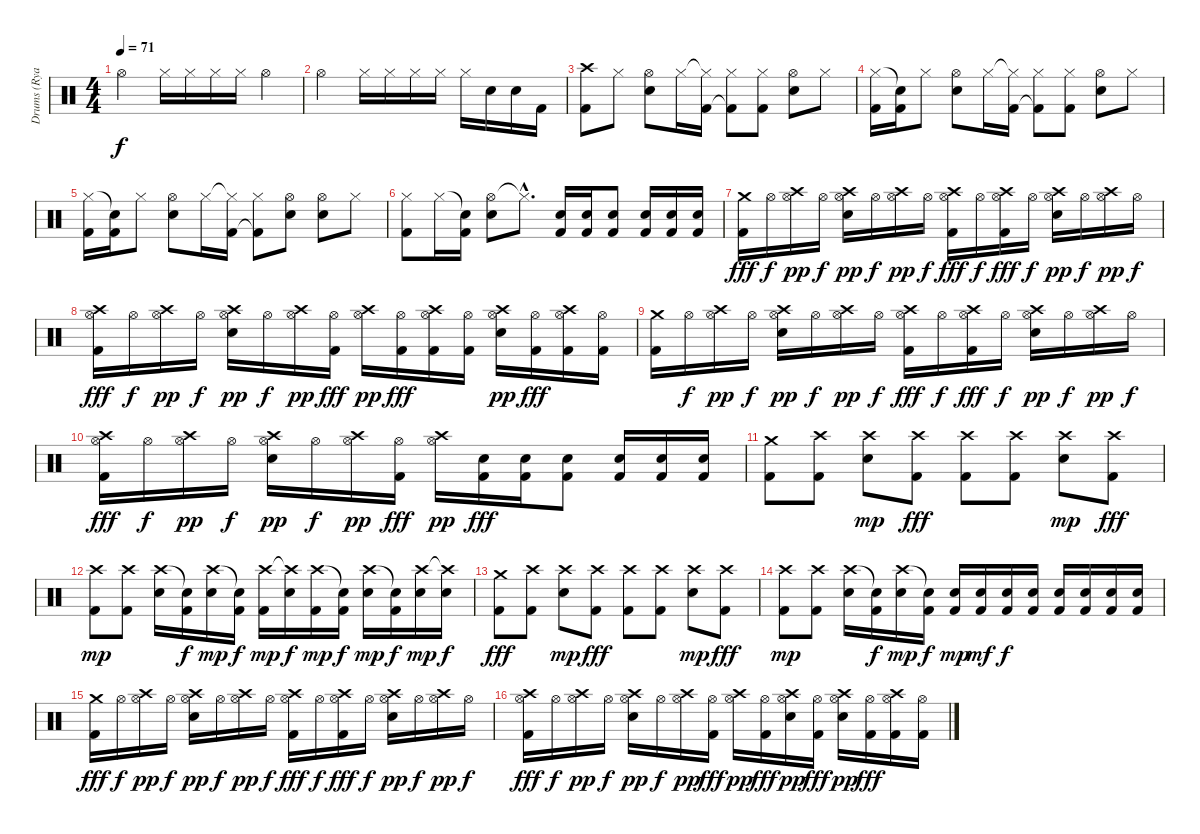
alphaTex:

\track ("Drums (Ryan \"Nik\" Vikedal)" "Drums (Rya") {instrument percussion}
\staff {score}
\articulation defaults
\ts (4 4)
\tempo 71
\clef neutral
\ks c "Hi-Hat (open)".2{dy f} "Hi-Hat (closed)".16 "Hi-Hat (closed)".16 "Hi-Hat (closed)".16 "Hi-Hat (closed)".16 "Hi-Hat (open)".4
|
"Hi-Hat (open)".2 "Hi-Hat (closed)".16 "Hi-Hat (closed)".16 "Hi-Hat (closed)".16 "Hi-Hat (closed)".16 "Hi-Hat (closed)".16 "Electric Snare (hit)".16 "Electric Snare (hit)".16 "Kick (hit) 2".16 |
("Crash high (hit)" "Kick (hit) 2").8 "Hi-Hat (closed)".8 ("Hi-Hat (open)" "Electric Snare (hit)").8 "Hi-Hat (closed)".16 ("Hi-Hat (closed)"{t} "Kick (hit) 2").16 ("Hi-Hat (closed)" "Kick (hit) 2"{t}).8 ("Hi-Hat (closed)" "Kick (hit) 2").8 ("Hi-Hat (open)" "Electric Snare (hit)").8 "Hi-Hat (closed)".8 |
("Hi-Hat (closed)" "Kick (hit) 2").16 ("Snare (hit)"{t} "Kick (hit) 2").16 "Hi-Hat (closed)".8 ("Hi-Hat (open)" "Electric Snare (hit)").8 "Hi-Hat (closed)".16 ("Hi-Hat (closed)"{t} "Kick (hit) 2").16 ("Hi-Hat (closed)" "Kick (hit) 2"{t}).8 ("Hi-Hat (closed)" "Kick (hit) 2").8 ("Hi-Hat (open)" "Electric Snare (hit)").8 "Hi-Hat (closed)".8 |
("Hi-Hat (closed)" "Kick (hit) 2").16 ("Snare (hit)"{t} "Kick (hit) 2").16 "Hi-Hat (closed)".8 ("Hi-Hat (open)" "Electric Snare (hit)").8 "Hi-Hat (closed)".16 ("Hi-Hat (closed)"{t} "Kick (hit) 2").16 ("Hi-Hat (closed)" "Kick (hit) 2"{t}).8 ("Hi-Hat (open)" "Electric Snare (hit)").8 ("Hi-Hat (open)" "Electric Snare (hit)").8 "Hi-Hat (closed)".8 |
("Hi-Hat (closed)" "Kick (hit) 2").8 "Hi-Hat (closed)".16 ("Snare (hit)"{t} "Kick (hit) 2").16 ("Hi-Hat (open)" "Electric Snare (hit)").8 "Hi-Hat (closed)"{hac t}.8{d} ("Electric Snare (hit)" "Kick (hit) 2").16 ("Electric Snare (hit)" "Kick (hit) 2").16 ("Electric Snare (hit)" "Kick (hit) 2").8 ("Electric Snare (hit)" "Kick (hit) 2").16 ("Electric Snare (hit)" "Kick (hit) 2").16 ("Electric Snare (hit)" "Kick (hit) 2").16 |
("Crash medium (hit)" "Kick (hit) 2").16{dy fff} "Hi-Hat (open)".16{dy f} ("Crash high (hit)" "Hi-Hat (open)").16{dy pp} "Hi-Hat (open)".16{dy f} ("Crash high (hit)" "Hi-Hat (open)" "Electric Snare (hit)").16{dy pp} "Hi-Hat (open)".16{dy f} ("Crash high (hit)" "Hi-Hat (open)").16{dy pp} "Hi-Hat (open)".16{dy f} ("Crash high (hit)" "Hi-Hat (open)" "Kick (hit) 2").16{dy fff} "Hi-Hat (open)".16{dy f} ("Crash high (hit)" "Hi-Hat (open)" "Kick (hit) 2").16{dy fff} "Hi-Hat (open)".16{dy f} ("Crash high (hit)" "Hi-Hat (open)" "Electric Snare (hit)").16{dy pp} "Hi-Hat (open)".16{dy f} ("Crash high (hit)" "Hi-Hat (open)").16{dy pp} "Hi-Hat (open)".16{dy f} |
("Crash high (hit)" "Hi-Hat (open)" "Kick (hit) 2").16{dy fff} "Hi-Hat (open)".16{dy f} ("Crash high (hit)" "Hi-Hat (open)").16{dy pp} "Hi-Hat (open)".16{dy f} ("Crash high (hit)" "Hi-Hat (open)" "Electric Snare (hit)").16{dy pp} "Hi-Hat (open)".16{dy f} ("Crash high (hit)" "Hi-Hat (open)").16{dy pp} ("Hi-Hat (open)" "Kick (hit) 2").16{dy fff} ("Crash high (hit)" "Hi-Hat (open)").16{dy pp} ("Hi-Hat (open)" "Kick (hit) 2").16{dy fff} ("Crash high (hit)" "Hi-Hat (open)" "Kick (hit) 2").16 ("Hi-Hat (open)" "Kick (hit) 2").16 ("Crash high (hit)" "Hi-Hat (open)" "Electric Snare (hit)").16{dy pp} ("Hi-Hat (open)" "Kick (hit) 2").16{dy fff} ("Crash high (hit)" "Hi-Hat (open)" "Kick (hit) 2").16 ("Hi-Hat (open)" "Kick (hit) 2").16 |
("Crash medium (hit)" "Kick (hit) 2").16 "Hi-Hat (open)".16{dy f} ("Crash high (hit)" "Hi-Hat (open)").16{dy pp} "Hi-Hat (open)".16{dy f} ("Crash high (hit)" "Hi-Hat (open)" "Electric Snare (hit)").16{dy pp} "Hi-Hat (open)".16{dy f} ("Crash high (hit)" "Hi-Hat (open)").16{dy pp} "Hi-Hat (open)".16{dy f} ("Crash high (hit)" "Hi-Hat (open)" "Kick (hit) 2").16{dy fff} "Hi-Hat (open)".16{dy f} ("Crash high (hit)" "Hi-Hat (open)" "Kick (hit) 2").16{dy fff} "Hi-Hat (open)".16{dy f} ("Crash high (hit)" "Hi-Hat (open)" "Electric Snare (hit)").16{dy pp} "Hi-Hat (open)".16{dy f} ("Crash high (hit)" "Hi-Hat (open)").16{dy pp} "Hi-Hat (open)".16{dy f} |
("Crash high (hit)" "Hi-Hat (open)" "Kick (hit) 2").16{dy fff} "Hi-Hat (open)".16{dy f} ("Crash high (hit)" "Hi-Hat (open)").16{dy pp} "Hi-Hat (open)".16{dy f} ("Crash high (hit)" "Hi-Hat (open)" "Electric Snare (hit)").16{dy pp} "Hi-Hat (open)".16{dy f} ("Crash high (hit)" "Hi-Hat (open)").16{dy pp} ("Hi-Hat (open)" "Kick (hit) 2").16{dy fff} ("Crash high (hit)" "Hi-Hat (open)").16{dy pp} ("Electric Snare (hit)" "Kick (hit) 2").16{dy fff} ("Electric Snare (hit)" "Kick (hit) 2").16 ("Electric Snare (hit)" "Kick (hit) 2").8 ("Electric Snare (hit)" "Kick (hit) 2").16 ("Electric Snare (hit)" "Kick (hit) 2").16 ("Electric Snare (hit)" "Kick (hit) 2").16 |
("Crash medium (hit)" "Kick (hit) 2").8 ("Crash high (hit)" "Kick (hit) 2").8 ("Crash high (hit)" "Electric Snare (hit)").8{dy mp} ("Crash high (hit)" "Kick (hit) 2").8{dy fff} ("Crash high (hit)" "Kick (hit) 2").8 ("Crash high (hit)" "Kick (hit) 2").8 ("Crash high (hit)" "Electric Snare (hit)").8{dy mp} ("Crash high (hit)" "Kick (hit) 2").8{dy fff} |
("Crash high (hit)" "Kick (hit) 2").8{dy mp} ("Crash high (hit)" "Kick (hit) 2").8 ("Crash high (hit)" "Electric Snare (hit)").16 ("Snare (hit)"{t} "Kick (hit) 2").16{dy f} ("Crash high (hit)" "Electric Snare (hit)").16{dy mp} ("Snare (hit)"{t} "Kick (hit) 2").16{dy f} ("Crash high (hit)" "Kick (hit) 2").16{dy mp} ("Crash high (hit)"{t} "Electric Snare (hit)").16{dy f} ("Crash high (hit)" "Kick (hit) 2").16{dy mp} ("Snare (hit)"{t} "Kick (hit) 2").16{dy f} ("Crash high (hit)" "Electric Snare (hit)").16{dy mp} ("Snare (hit)"{t} "Kick (hit) 2").16{dy f} ("Crash high (hit)" "Electric Snare (hit)").16{dy mp} ("Crash high (hit)"{t} "Electric Snare (hit)").16{dy f} |
("Crash medium (hit)" "Kick (hit) 2").8{dy fff} ("Crash high (hit)" "Kick (hit) 2").8 ("Crash high (hit)" "Electric Snare (hit)").8{dy mp} ("Crash high (hit)" "Kick (hit) 2").8{dy fff} ("Crash high (hit)" "Kick (hit) 2").8 ("Crash high (hit)" "Kick (hit) 2").8 ("Crash high (hit)" "Electric Snare (hit)").8{dy mp} ("Crash high (hit)" "Kick (hit) 2").8{dy fff} |
("Crash high (hit)" "Kick (hit) 2").8{dy mp} ("Crash high (hit)" "Kick (hit) 2").8 ("Crash high (hit)" "Electric Snare (hit)").16 ("Snare (hit)"{t} "Kick (hit) 2").16{dy f} ("Crash high (hit)" "Electric Snare (hit)").16{dy mp} ("Snare (hit)"{t} "Kick (hit) 2").16{dy f} ("Electric Snare (hit)" "Kick (hit) 2").16{dy mp} ("Electric Snare (hit)" "Kick (hit) 2").16{dy mf} ("Electric Snare (hit)" "Kick (hit) 2").16{dy f} ("Electric Snare (hit)" "Kick (hit) 2").16 ("Electric Snare (hit)" "Kick (hit) 2").16 ("Electric Snare (hit)" "Kick (hit) 2").16 ("Electric Snare (hit)" "Kick (hit) 2").16 ("Electric Snare (hit)" "Kick (hit) 2").16 |
("Crash medium (hit)" "Kick (hit) 2").16{dy fff} "Hi-Hat (open)".16{dy f} ("Crash high (hit)" "Hi-Hat (open)").16{dy pp} "Hi-Hat (open)".16{dy f} ("Crash high (hit)" "Hi-Hat (open)" "Electric Snare (hit)").16{dy pp} "Hi-Hat (open)".16{dy f} ("Crash high (hit)" "Hi-Hat (open)").16{dy pp} "Hi-Hat (open)".16{dy f} ("Crash high (hit)" "Hi-Hat (open)" "Kick (hit) 2").16{dy fff} "Hi-Hat (open)".16{dy f} ("Crash high (hit)" "Hi-Hat (open)" "Kick (hit) 2").16{dy fff} "Hi-Hat (open)".16{dy f} ("Crash high (hit)" "Hi-Hat (open)" "Electric Snare (hit)").16{dy pp} "Hi-Hat (open)".16{dy f} ("Crash high (hit)" "Hi-Hat (open)").16{dy pp} "Hi-Hat (open)".16{dy f} |
("Crash high (hit)" "Hi-Hat (open)" "Kick (hit) 2").16{dy fff} "Hi-Hat (open)".16{dy f} ("Crash high (hit)" "Hi-Hat (open)").16{dy pp} "Hi-Hat (open)".16{dy f} ("Crash high (hit)" "Hi-Hat (open)" "Electric Snare (hit)").16{dy pp} "Hi-Hat (open)".16{dy f} ("Crash high (hit)" "Hi-Hat (open)").16{dy pp} ("Hi-Hat (open)" "Kick (hit) 2").16{dy fff} ("Crash high (hit)" "Hi-Hat (open)").16{dy pp} ("Hi-Hat (open)" "Kick (hit) 2").16{dy fff} ("Crash high (hit)" "Hi-Hat (open)" "Electric Snare (hit)").16{dy pp} ("Hi-Hat (open)" "Kick (hit) 2").16{dy fff} ("Crash high (hit)" "Hi-Hat (open)" "Electric Snare (hit)").16{dy pp} ("Hi-Hat (open)" "Kick (hit) 2").16{dy fff} ("Crash high (hit)" "Hi-Hat (open)" "Kick (hit) 2").16 ("Hi-Hat (open)" "Kick (hit) 2").16
